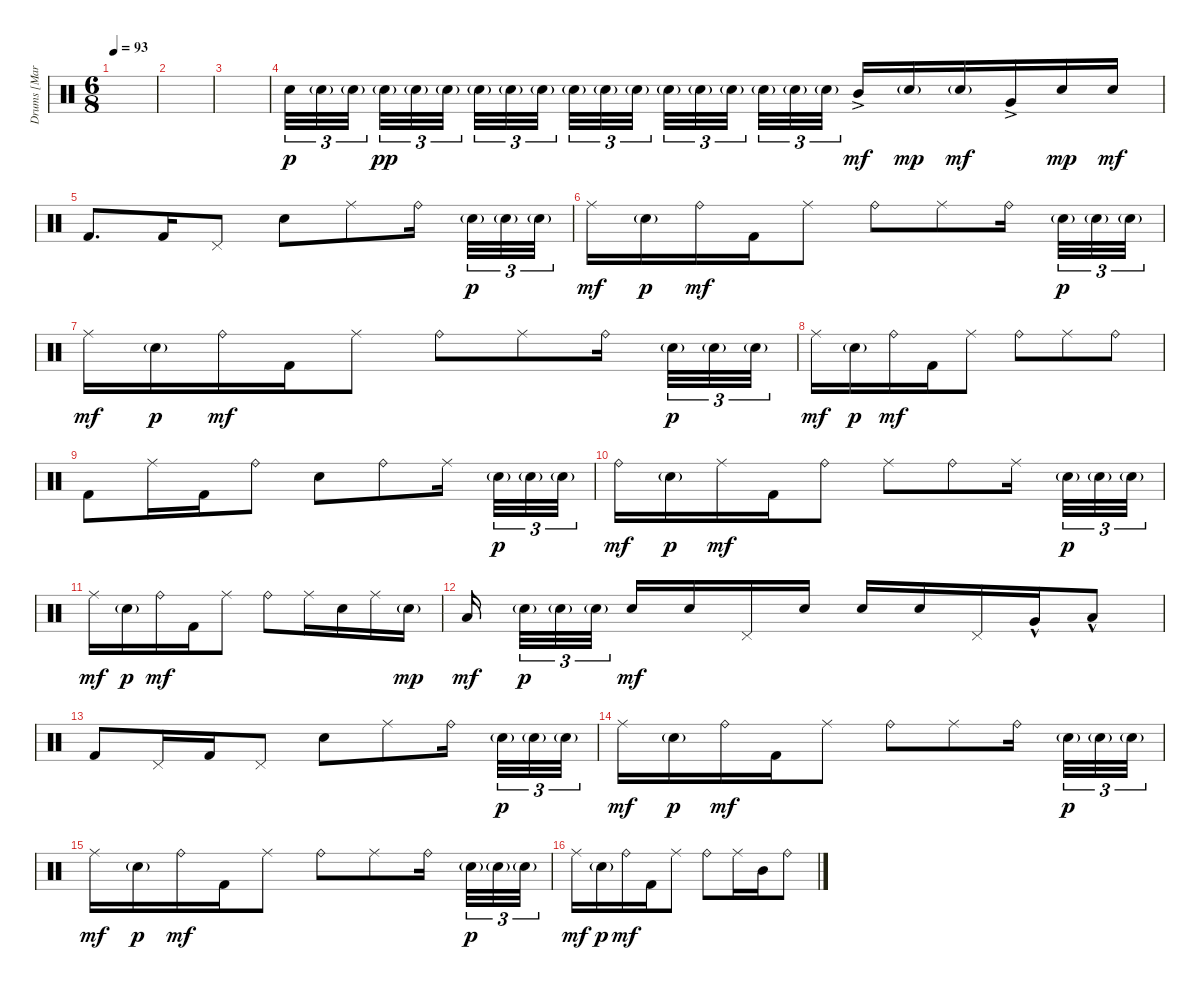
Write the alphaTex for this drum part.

\track ("Drums [Martin Lopez]" "Drums [Mar") {instrument percussion}
\staff {score}
\articulation defaults
\ts (6 8)
\tempo 93
\clef neutral
\ks c
|
|
|
"Snare (hit) 2".32{tu (3 2) dy p} "Snare (hit) 2"{g}.32{tu (3 2)} "Snare (hit) 2"{g}.32{tu (3 2)} "Snare (hit) 2"{g}.32{tu (3 2) dy pp} "Snare (hit) 2"{g}.32{tu (3 2)} "Snare (hit) 2"{g}.32{tu (3 2)} "Snare (hit) 2"{g}.32{tu (3 2)} "Snare (hit) 2"{g}.32{tu (3 2)} "Snare (hit) 2"{g}.32{tu (3 2)} "Snare (hit) 2"{g}.32{tu (3 2)} "Snare (hit) 2"{g}.32{tu (3 2)} "Snare (hit) 2"{g}.32{tu (3 2)} "Snare (hit) 2"{g}.32{tu (3 2)} "Snare (hit) 2"{g}.32{tu (3 2)} "Snare (hit) 2"{g}.32{tu (3 2)} "Snare (hit) 2"{g}.32{tu (3 2)} "Snare (hit) 2"{g}.32{tu (3 2)} "Snare (hit) 2"{g}.32{tu (3 2)} "Mid Tom (hit)"{ac}.16{dy mf} "Snare (hit) 2"{g}.16{dy mp} "Snare (hit) 2"{g}.16{dy mf} "Very Low Tom (hit)"{ac}.16 "Snare (hit) 2".16{dy mp} "Snare (hit) 2".16{dy mf} |
"Kick (hit) 2".8{d} "Kick (hit) 2".16 "Pedal Hi-Hat (hit)".8 "Snare (hit) 2".8 "Ride (middle)".8 "Ride (bell)".16 "Snare (hit) 2"{g}.32{tu (3 2) dy p} "Snare (hit) 2"{g}.32{tu (3 2)} "Snare (hit) 2"{g}.32{tu (3 2)} |
"Ride (middle)".16{dy mf} "Snare (hit) 2"{g}.16{dy p} "Ride (bell)".16{dy mf} "Kick (hit) 2".16 "Ride (middle)".8 "Ride (bell)".8 "Ride (middle)".8 "Ride (bell)".16 "Snare (hit) 2"{g}.32{tu (3 2) dy p} "Snare (hit) 2"{g}.32{tu (3 2)} "Snare (hit) 2"{g}.32{tu (3 2)} |
"Ride (middle)".16{dy mf} "Snare (hit) 2"{g}.16{dy p} "Ride (bell)".16{dy mf} "Kick (hit) 2".16 "Ride (middle)".8 "Ride (bell)".8 "Ride (middle)".8 "Ride (bell)".16 "Snare (hit) 2"{g}.32{tu (3 2) dy p} "Snare (hit) 2"{g}.32{tu (3 2)} "Snare (hit) 2"{g}.32{tu (3 2)} |
"Ride (middle)".16{dy mf} "Snare (hit) 2"{g}.16{dy p} "Ride (bell)".16{dy mf} "Kick (hit) 2".16 "Ride (middle)".8 "Ride (bell)".8 "Ride (middle)".8 "Ride (bell)".8 |
"Kick (hit) 2".8 "Ride (middle)".16 "Kick (hit) 2".16 "Ride (bell)".8 "Snare (hit) 2".8 "Ride (bell)".8 "Ride (middle)".16 "Snare (hit) 2"{g}.32{tu (3 2) dy p} "Snare (hit) 2"{g}.32{tu (3 2)} "Snare (hit) 2"{g}.32{tu (3 2)} |
"Ride (bell)".16{dy mf} "Snare (hit) 2"{g}.16{dy p} "Ride (middle)".16{dy mf} "Kick (hit) 2".16 "Ride (bell)".8 "Ride (middle)".8 "Ride (bell)".8 "Ride (middle)".16 "Snare (hit) 2"{g}.32{tu (3 2) dy p} "Snare (hit) 2"{g}.32{tu (3 2)} "Snare (hit) 2"{g}.32{tu (3 2)} |
"Ride (middle)".16{dy mf} "Snare (hit) 2"{g}.16{dy p} "Ride (bell)".16{dy mf} "Kick (hit) 2".16 "Ride (middle)".8 "Ride (bell)".8 "Ride (middle)".16 "Snare (hit) 2".16 "Ride (middle)".16 "Snare (hit) 2"{g}.16{dy mp} |
"Low Tom (hit)".16{dy mf} "Snare (hit) 2"{g}.32{tu (3 2) dy p} "Snare (hit) 2"{g}.32{tu (3 2)} "Snare (hit) 2"{g}.32{tu (3 2)} "Snare (hit) 2".16{dy mf} "Snare (hit) 2".16 "Pedal Hi-Hat (hit)".16 "Snare (hit) 2".16 "Snare (hit) 2".16 "Snare (hit) 2".16 "Pedal Hi-Hat (hit)".16 "Very Low Tom (hit)"{hac}.16 "Low Floor Tom (hit)"{hac}.8 |
"Kick (hit) 2".8 "Pedal Hi-Hat (hit)".16 "Kick (hit) 2".16 "Pedal Hi-Hat (hit)".8 "Snare (hit) 2".8 "Ride (middle)".8 "Ride (bell)".16 "Snare (hit) 2"{g}.32{tu (3 2) dy p} "Snare (hit) 2"{g}.32{tu (3 2)} "Snare (hit) 2"{g}.32{tu (3 2)} |
"Ride (middle)".16{dy mf} "Snare (hit) 2"{g}.16{dy p} "Ride (bell)".16{dy mf} "Kick (hit) 2".16 "Ride (middle)".8 "Ride (bell)".8 "Ride (middle)".8 "Ride (bell)".16 "Snare (hit) 2"{g}.32{tu (3 2) dy p} "Snare (hit) 2"{g}.32{tu (3 2)} "Snare (hit) 2"{g}.32{tu (3 2)} |
"Ride (middle)".16{dy mf} "Snare (hit) 2"{g}.16{dy p} "Ride (bell)".16{dy mf} "Kick (hit) 2".16 "Ride (middle)".8 "Ride (bell)".8 "Ride (middle)".8 "Ride (bell)".16 "Snare (hit) 2"{g}.32{tu (3 2) dy p} "Snare (hit) 2"{g}.32{tu (3 2)} "Snare (hit) 2"{g}.32{tu (3 2)} |
"Ride (middle)".16{dy mf} "Snare (hit) 2"{g}.16{dy p} "Ride (bell)".16{dy mf} "Kick (hit) 2".16 "Ride (middle)".8 "Ride (bell)".8 "Ride (middle)".16 "Mid Tom (hit)".16 "Ride (bell)".8
